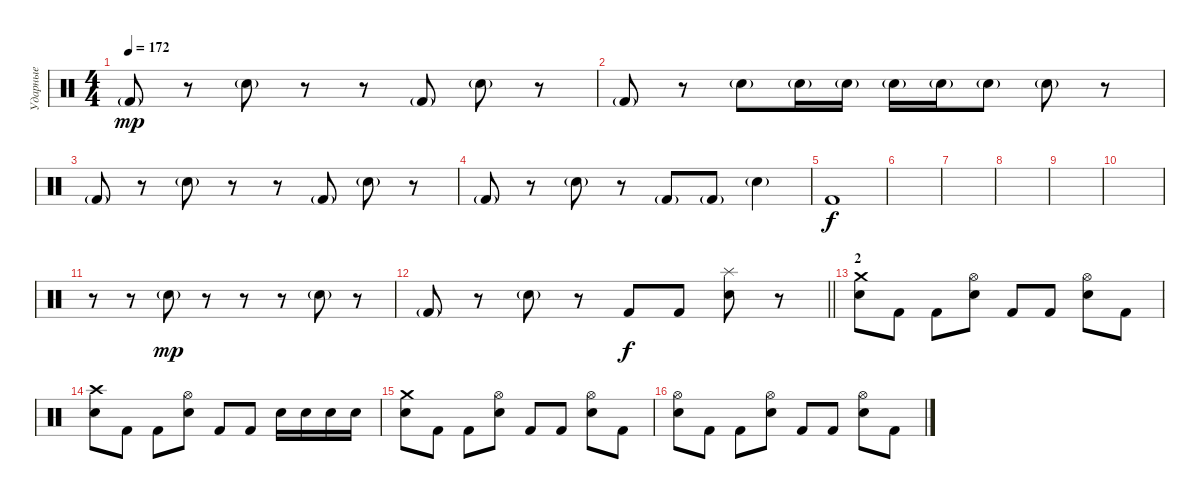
\track ("Ударные" "Ударные") {instrument percussion}
\staff {score}
\articulation defaults
\ts (4 4)
\tempo 172
\clef neutral
\ks c "Kick (hit) 2"{g}.8{dy mp}
r.8 "Electric Snare (hit)"{g}.8 r.8 r.8 "Kick (hit) 2"{g}.8 "Electric Snare (hit)"{g}.8 r.8 |
"Kick (hit) 2"{g}.8 r.8 "Electric Snare (hit)"{g}.8 "Electric Snare (hit)"{g}.16 "Electric Snare (hit)"{g}.16 "Electric Snare (hit)"{g}.16 "Electric Snare (hit)"{g}.16 "Electric Snare (hit)"{g}.8 "Electric Snare (hit)"{g}.8 r.8 |
"Kick (hit) 2"{g}.8 r.8 "Electric Snare (hit)"{g}.8 r.8 r.8 "Kick (hit) 2"{g}.8 "Electric Snare (hit)"{g}.8 r.8 |
"Kick (hit) 2"{g}.8 r.8 "Electric Snare (hit)"{g}.8 r.8 "Kick (hit) 2"{g}.8 "Kick (hit) 2"{g}.8 "Electric Snare (hit)"{g}.4 |
"Kick (hit) 2".1{dy f} |
|
|
|
|
|
r.8 r.8 "Electric Snare (hit)"{g}.8{dy mp} r.8 r.8 r.8 "Electric Snare (hit)"{g}.8 r.8 |
\barLineRight lightlight "Kick (hit) 2"{g}.8
r.8 "Electric Snare (hit)"{g}.8 r.8 "Kick (hit) 2".8{dy f} "Kick (hit) 2".8 ("Splash (hit)" "Electric Snare (hit)").8 r.8 |
\section ("" "2")
("Crash medium (hit)" "Electric Snare (hit)").8 "Kick (hit) 2".8 "Kick (hit) 2".8 ("Hi-Hat (open)" "Electric Snare (hit)").8 "Kick (hit) 2".8 "Kick (hit) 2".8 ("Hi-Hat (open)" "Electric Snare (hit)").8 "Kick (hit) 2".8 |
("Crash high (hit)" "Electric Snare (hit)").8 "Kick (hit) 2".8 "Kick (hit) 2".8 ("Hi-Hat (open)" "Electric Snare (hit)").8 "Kick (hit) 2".8 "Kick (hit) 2".8 "Electric Snare (hit)".16 "Electric Snare (hit)".16 "Electric Snare (hit)".16 "Electric Snare (hit)".16 |
("Crash medium (hit)" "Electric Snare (hit)").8 "Kick (hit) 2".8 "Kick (hit) 2".8 ("Hi-Hat (open)" "Electric Snare (hit)").8 "Kick (hit) 2".8 "Kick (hit) 2".8 ("Hi-Hat (open)" "Electric Snare (hit)").8 "Kick (hit) 2".8 |
("Hi-Hat (open)" "Electric Snare (hit)").8 "Kick (hit) 2".8 "Kick (hit) 2".8 ("Hi-Hat (open)" "Electric Snare (hit)").8 "Kick (hit) 2".8 "Kick (hit) 2".8 ("Hi-Hat (open)" "Electric Snare (hit)").8 "Kick (hit) 2".8
